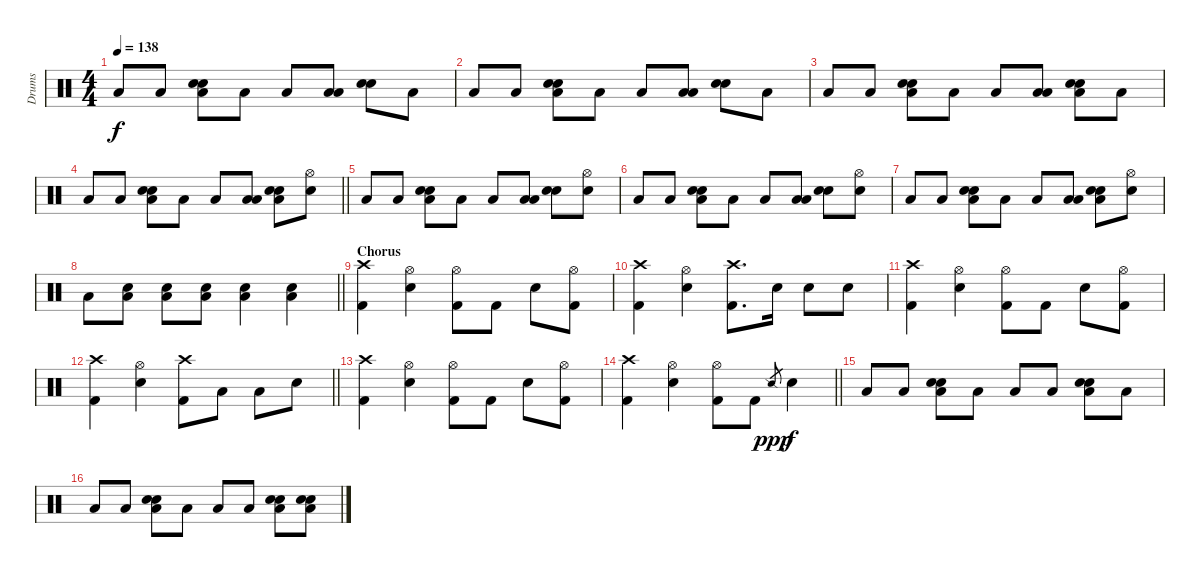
\track ("Drums" "Drums") {instrument percussion}
\staff {score}
\articulation defaults
\ts (4 4)
\tempo 138
\clef neutral
\ks c "Low Floor Tom (hit)".8{dy f} "Low Floor Tom (hit)".8
("Snare (hit) 2" "Hand Clap (hit)" "Low Floor Tom (hit)").8 "Low Floor Tom (hit)".8 "Low Floor Tom (hit)".8 ("Low Tom (hit)" "Low Floor Tom (hit)").8 ("Snare (hit) 2" "Hand Clap (hit)").8 "Low Floor Tom (hit)".8 |
"Low Floor Tom (hit)".8 "Low Floor Tom (hit)".8 ("Snare (hit) 2" "Hand Clap (hit)" "Low Floor Tom (hit)").8 "Low Floor Tom (hit)".8 "Low Floor Tom (hit)".8 ("Low Tom (hit)" "Low Floor Tom (hit)").8 ("Snare (hit) 2" "Hand Clap (hit)").8 "Low Floor Tom (hit)".8 |
"Low Floor Tom (hit)".8 "Low Floor Tom (hit)".8 ("Snare (hit) 2" "Hand Clap (hit)" "Low Floor Tom (hit)").8 "Low Floor Tom (hit)".8 "Low Floor Tom (hit)".8 ("Low Tom (hit)" "Low Floor Tom (hit)").8 ("Snare (hit) 2" "Hand Clap (hit)" "Low Floor Tom (hit)").8 "Low Floor Tom (hit)".8 |
\barLineRight lightlight "Low Floor Tom (hit)".8 "Low Floor Tom (hit)".8
("Snare (hit) 2" "Hand Clap (hit)" "Low Floor Tom (hit)").8 "Low Floor Tom (hit)".8 "Low Floor Tom (hit)".8 ("Low Tom (hit)" "Low Floor Tom (hit)").8 ("Snare (hit) 2" "Hand Clap (hit)" "Low Floor Tom (hit)").8 ("Hi-Hat (open)" "Snare (hit) 2").8 |
"Low Floor Tom (hit)".8 "Low Floor Tom (hit)".8 ("Snare (hit) 2" "Hand Clap (hit)" "Low Floor Tom (hit)").8 "Low Floor Tom (hit)".8 "Low Floor Tom (hit)".8 ("Low Tom (hit)" "Low Floor Tom (hit)").8 ("Snare (hit) 2" "Hand Clap (hit)").8 ("Hi-Hat (open)" "Snare (hit) 2").8 |
"Low Floor Tom (hit)".8 "Low Floor Tom (hit)".8 ("Snare (hit) 2" "Hand Clap (hit)" "Low Floor Tom (hit)").8 "Low Floor Tom (hit)".8 "Low Floor Tom (hit)".8 ("Low Tom (hit)" "Low Floor Tom (hit)").8 ("Snare (hit) 2" "Hand Clap (hit)").8 ("Hi-Hat (open)" "Snare (hit) 2").8 |
"Low Floor Tom (hit)".8 "Low Floor Tom (hit)".8 ("Snare (hit) 2" "Hand Clap (hit)" "Low Floor Tom (hit)").8 "Low Floor Tom (hit)".8 "Low Floor Tom (hit)".8 ("Low Tom (hit)" "Low Floor Tom (hit)").8 ("Snare (hit) 2" "Hand Clap (hit)" "Low Floor Tom (hit)").8 ("Hi-Hat (open)" "Snare (hit) 2").8 |
\barLineRight lightlight "Low Floor Tom (hit)".8
("Snare (hit) 2" "Low Floor Tom (hit)").8 ("Snare (hit) 2" "Low Floor Tom (hit)").8 ("Snare (hit) 2" "Low Floor Tom (hit)").8 ("Snare (hit) 2" "Low Floor Tom (hit)").4 ("Snare (hit) 2" "Low Floor Tom (hit)").4 |
\section ("" "Chorus")
("Crash high (hit)" "Kick (hit) 2").4 ("Hi-Hat (open)" "Snare (hit) 2").4 ("Hi-Hat (open)" "Kick (hit) 2").8 "Kick (hit) 2".8 "Snare (hit) 2".8 ("Hi-Hat (open)" "Kick (hit) 2").8 |
("Crash high (hit)" "Kick (hit) 2").4 ("Hi-Hat (open)" "Snare (hit) 2").4 ("Crash high (hit)" "Kick (hit) 2").8{d} "Snare (hit) 2".16 "Snare (hit) 2".8 "Snare (hit) 2".8 |
("Crash high (hit)" "Kick (hit) 2").4 ("Hi-Hat (open)" "Snare (hit) 2").4 ("Hi-Hat (open)" "Kick (hit) 2").8 "Kick (hit) 2".8 "Snare (hit) 2".8 ("Hi-Hat (open)" "Kick (hit) 2").8 |
\barLineRight lightlight
("Crash high (hit)" "Kick (hit) 2").4 ("Hi-Hat (open)" "Snare (hit) 2").4 ("Crash high (hit)" "Kick (hit) 2").8 "Low Tom (hit)".8 "Low Tom (hit)".8 "Snare (hit) 2".8 |
("Crash high (hit)" "Kick (hit) 2").4 ("Hi-Hat (open)" "Snare (hit) 2").4 ("Hi-Hat (open)" "Kick (hit) 2").8 "Kick (hit) 2".8 "Snare (hit) 2".8 ("Hi-Hat (open)" "Kick (hit) 2").8 |
\barLineRight lightlight
("Crash high (hit)" "Kick (hit) 2").4 ("Hi-Hat (open)" "Snare (hit) 2").4 ("Hi-Hat (open)" "Kick (hit) 2").8 "Kick (hit) 2".8 "Snare (side stick) 2".8{gr dy ppp} "Snare (hit) 2".4{dy f} |
"Low Floor Tom (hit)".8 "Low Floor Tom (hit)".8 ("Snare (hit) 2" "Hand Clap (hit)" "Low Floor Tom (hit)").8 "Low Floor Tom (hit)".8 "Low Floor Tom (hit)".8 "Low Floor Tom (hit)".8 ("Snare (hit) 2" "Hand Clap (hit)" "Low Floor Tom (hit)").8 "Low Floor Tom (hit)".8 |
"Low Floor Tom (hit)".8 "Low Floor Tom (hit)".8 ("Snare (hit) 2" "Hand Clap (hit)" "Low Floor Tom (hit)").8 "Low Floor Tom (hit)".8 "Low Floor Tom (hit)".8 "Low Floor Tom (hit)".8 ("Snare (hit) 2" "Hand Clap (hit)" "Low Floor Tom (hit)").8 ("Snare (hit) 2" "Hand Clap (hit)" "Low Floor Tom (hit)").8
